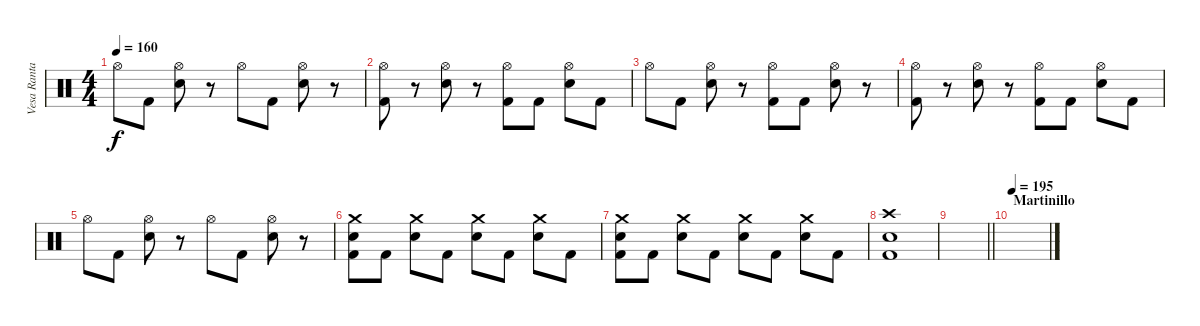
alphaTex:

\track ("Vesa Ranta" "Vesa Ranta") {instrument percussion}
\staff {score}
\articulation defaults
\ts (4 4)
\tempo 160
\clef neutral
\ks c "Hi-Hat (open)".8{dy f} "Kick (hit) 2".8
("Hi-Hat (open)" "Electric Snare (hit)").8 r.8 "Hi-Hat (open)".8 "Kick (hit) 2".8 ("Hi-Hat (open)" "Electric Snare (hit)").8 r.8 |
("Hi-Hat (open)" "Kick (hit) 2").8 r.8 ("Hi-Hat (open)" "Electric Snare (hit)").8 r.8 ("Hi-Hat (open)" "Kick (hit) 2").8 "Kick (hit) 2".8 ("Hi-Hat (open)" "Electric Snare (hit)").8 "Kick (hit) 2".8 |
"Hi-Hat (open)".8 "Kick (hit) 2".8 ("Hi-Hat (open)" "Electric Snare (hit)").8 r.8 ("Hi-Hat (open)" "Kick (hit) 2").8 "Kick (hit) 2".8 ("Hi-Hat (open)" "Electric Snare (hit)").8 r.8 |
("Hi-Hat (open)" "Kick (hit) 2").8 r.8 ("Hi-Hat (open)" "Electric Snare (hit)").8 r.8 ("Hi-Hat (open)" "Kick (hit) 2").8 "Kick (hit) 2".8 ("Hi-Hat (open)" "Electric Snare (hit)").8 "Kick (hit) 2".8 |
"Hi-Hat (open)".8 "Kick (hit) 2".8 ("Hi-Hat (open)" "Electric Snare (hit)").8 r.8 "Hi-Hat (open)".8 "Kick (hit) 2".8 ("Hi-Hat (open)" "Electric Snare (hit)").8 r.8 |
("Crash medium (hit)" "Electric Snare (hit)" "Kick (hit) 2").8 "Kick (hit) 2".8 ("Crash medium (hit)" "Electric Snare (hit)").8 "Kick (hit) 2".8 ("Crash medium (hit)" "Electric Snare (hit)").8 "Kick (hit) 2".8 ("Crash medium (hit)" "Electric Snare (hit)").8 "Kick (hit) 2".8 |
("Crash medium (hit)" "Electric Snare (hit)" "Kick (hit) 2").8 "Kick (hit) 2".8 ("Crash medium (hit)" "Electric Snare (hit)").8 "Kick (hit) 2".8 ("Crash medium (hit)" "Electric Snare (hit)").8 "Kick (hit) 2".8 ("Crash medium (hit)" "Electric Snare (hit)").8 "Kick (hit) 2".8 |
("Crash high (hit)" "Electric Snare (hit)" "Kick (hit) 2").1 |
\barLineRight lightlight
|
\section ("" "Martinillo")
\tempo 195
